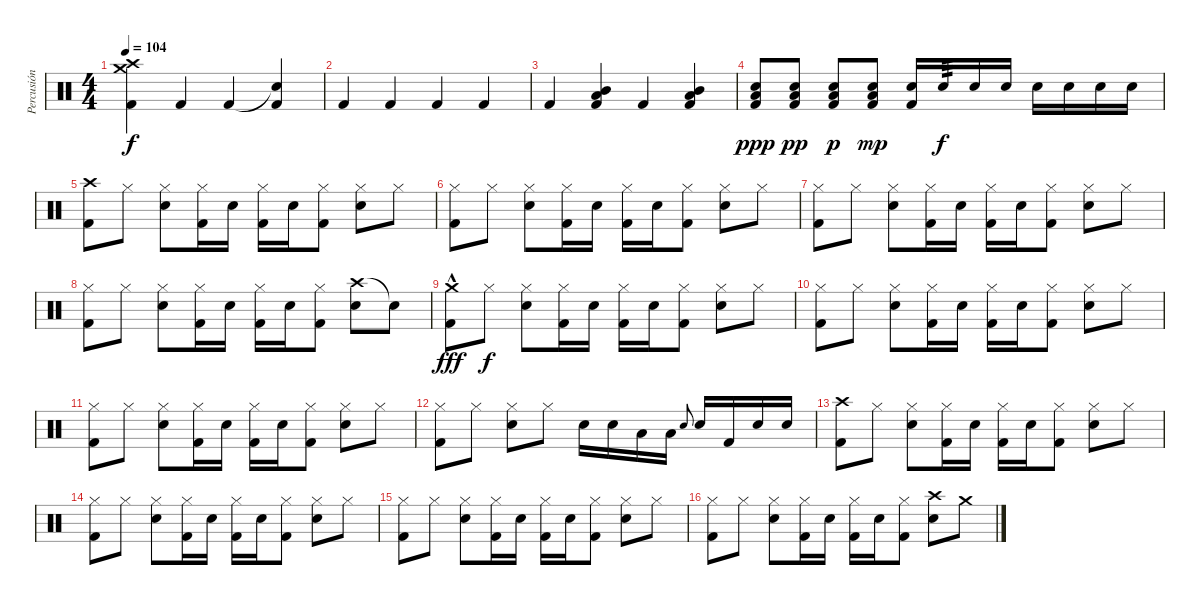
\track ("Percusión" "Percusión") {instrument percussion}
\staff {score}
\articulation defaults
\ts (4 4)
\tempo 104
\clef neutral
\ks c
("Crash high (hit)" "Crash medium (hit)" "Kick (hit) 2").4{dy f} "Kick (hit) 2".4 "Kick (hit) 2".4 ("Snare (hit)"{t} "Kick (hit) 2").4 |
"Kick (hit) 2".4 "Kick (hit) 2".4 "Kick (hit) 2".4 "Kick (hit) 2".4 |
"Kick (hit) 2".4 ("Mid Tom (hit)" "Low Floor Tom (hit)" "Kick (hit) 2").4 "Kick (hit) 2".4 ("Mid Tom (hit)" "Low Floor Tom (hit)" "Kick (hit) 2").4 |
("Low Floor Tom (hit)" "Snare (hit) 2" "Kick (hit) 2").8{dy ppp} ("Low Floor Tom (hit)" "Snare (hit) 2" "Kick (hit) 2").8{dy pp} ("Low Floor Tom (hit)" "Snare (hit) 2" "Kick (hit) 2").8{dy p} ("Low Floor Tom (hit)" "Snare (hit) 2" "Kick (hit) 2").8{dy mp} ("Snare (hit) 2" "Kick (hit) 2").16 "Snare (hit) 2".16{tp 3 dy f} "Snare (hit) 2".16 "Snare (hit) 2".16 "Snare (hit) 2".16 "Snare (hit) 2".16 "Snare (hit) 2".16 "Snare (hit) 2".16 |
("Crash high (hit)" "Kick (hit) 2").8 "Hi-Hat (closed)".8 ("Hi-Hat (closed)" "Snare (hit) 2").8 ("Hi-Hat (closed)" "Kick (hit) 2").16 "Snare (hit) 2".16 ("Hi-Hat (closed)" "Kick (hit) 2").16 "Snare (hit) 2".16 ("Hi-Hat (closed)" "Kick (hit) 2").8 ("Hi-Hat (closed)" "Snare (hit) 2").8 "Hi-Hat (closed)".8 |
("Hi-Hat (closed)" "Kick (hit) 2").8 "Hi-Hat (closed)".8 ("Hi-Hat (closed)" "Snare (hit) 2").8 ("Hi-Hat (closed)" "Kick (hit) 2").16 "Snare (hit) 2".16 ("Hi-Hat (closed)" "Kick (hit) 2").16 "Snare (hit) 2".16 ("Hi-Hat (closed)" "Kick (hit) 2").8 ("Hi-Hat (closed)" "Snare (hit) 2").8 "Hi-Hat (closed)".8 |
("Hi-Hat (closed)" "Kick (hit) 2").8 "Hi-Hat (closed)".8 ("Hi-Hat (closed)" "Snare (hit) 2").8 ("Hi-Hat (closed)" "Kick (hit) 2").16 "Snare (hit) 2".16 ("Hi-Hat (closed)" "Kick (hit) 2").16 "Snare (hit) 2".16 ("Hi-Hat (closed)" "Kick (hit) 2").8 ("Hi-Hat (closed)" "Snare (hit) 2").8 "Hi-Hat (closed)".8 |
("Hi-Hat (closed)" "Kick (hit) 2").8 "Hi-Hat (closed)".8 ("Hi-Hat (closed)" "Snare (hit) 2").8 ("Hi-Hat (closed)" "Kick (hit) 2").16 "Snare (hit) 2".16 ("Hi-Hat (closed)" "Kick (hit) 2").16 "Snare (hit) 2".16 ("Hi-Hat (closed)" "Kick (hit) 2").8 ("Crash high (hit)" "Snare (hit) 2").8 "Snare (hit)"{t}.8 |
("Crash medium (hit)"{hac} "Kick (hit) 2").8{dy fff} "Hi-Hat (closed)".8{dy f} ("Hi-Hat (closed)" "Snare (hit) 2").8 ("Hi-Hat (closed)" "Kick (hit) 2").16 "Snare (hit) 2".16 ("Hi-Hat (closed)" "Kick (hit) 2").16 "Snare (hit) 2".16 ("Hi-Hat (closed)" "Kick (hit) 2").8 ("Hi-Hat (closed)" "Snare (hit) 2").8 "Hi-Hat (closed)".8 |
("Hi-Hat (closed)" "Kick (hit) 2").8 "Hi-Hat (closed)".8 ("Hi-Hat (closed)" "Snare (hit) 2").8 ("Hi-Hat (closed)" "Kick (hit) 2").16 "Snare (hit) 2".16 ("Hi-Hat (closed)" "Kick (hit) 2").16 "Snare (hit) 2".16 ("Hi-Hat (closed)" "Kick (hit) 2").8 ("Hi-Hat (closed)" "Snare (hit) 2").8 "Hi-Hat (closed)".8 |
("Hi-Hat (closed)" "Kick (hit) 2").8 "Hi-Hat (closed)".8 ("Hi-Hat (closed)" "Snare (hit) 2").8 ("Hi-Hat (closed)" "Kick (hit) 2").16 "Snare (hit) 2".16 ("Hi-Hat (closed)" "Kick (hit) 2").16 "Snare (hit) 2".16 ("Hi-Hat (closed)" "Kick (hit) 2").8 ("Hi-Hat (closed)" "Snare (hit) 2").8 "Hi-Hat (closed)".8 |
("Hi-Hat (closed)" "Kick (hit) 2").8 "Hi-Hat (closed)".8 ("Hi-Hat (closed)" "Snare (hit) 2").8 "Hi-Hat (closed)".8 "Snare (hit) 2".16 "Snare (hit) 2".16 "Low Floor Tom (hit)".16 "Low Floor Tom (hit)".16 "Snare (hit) 2".8{gr onbeat} "Snare (hit) 2".16 "Kick (hit) 2".16 "Snare (hit) 2".16 "Snare (hit) 2".16 |
("Crash high (hit)" "Kick (hit) 2").8 "Hi-Hat (closed)".8 ("Hi-Hat (closed)" "Snare (hit) 2").8 ("Hi-Hat (closed)" "Kick (hit) 2").16 "Snare (hit) 2".16 ("Hi-Hat (closed)" "Kick (hit) 2").16 "Snare (hit) 2".16 ("Hi-Hat (closed)" "Kick (hit) 2").8 ("Hi-Hat (closed)" "Snare (hit) 2").8 "Hi-Hat (closed)".8 |
("Hi-Hat (closed)" "Kick (hit) 2").8 "Hi-Hat (closed)".8 ("Hi-Hat (closed)" "Snare (hit) 2").8 ("Hi-Hat (closed)" "Kick (hit) 2").16 "Snare (hit) 2".16 ("Hi-Hat (closed)" "Kick (hit) 2").16 "Snare (hit) 2".16 ("Hi-Hat (closed)" "Kick (hit) 2").8 ("Hi-Hat (closed)" "Snare (hit) 2").8 "Hi-Hat (closed)".8 |
("Hi-Hat (closed)" "Kick (hit) 2").8 "Hi-Hat (closed)".8 ("Hi-Hat (closed)" "Snare (hit) 2").8 ("Hi-Hat (closed)" "Kick (hit) 2").16 "Snare (hit) 2".16 ("Hi-Hat (closed)" "Kick (hit) 2").16 "Snare (hit) 2".16 ("Hi-Hat (closed)" "Kick (hit) 2").8 ("Hi-Hat (closed)" "Snare (hit) 2").8 "Hi-Hat (closed)".8 |
("Hi-Hat (closed)" "Kick (hit) 2").8 "Hi-Hat (closed)".8 ("Hi-Hat (closed)" "Snare (hit) 2").8 ("Hi-Hat (closed)" "Kick (hit) 2").16 "Snare (hit) 2".16 ("Hi-Hat (closed)" "Kick (hit) 2").16 "Snare (hit) 2".16 ("Hi-Hat (closed)" "Kick (hit) 2").8 ("Crash high (hit)" "Snare (hit) 2").8 "Crash medium (hit)".8
